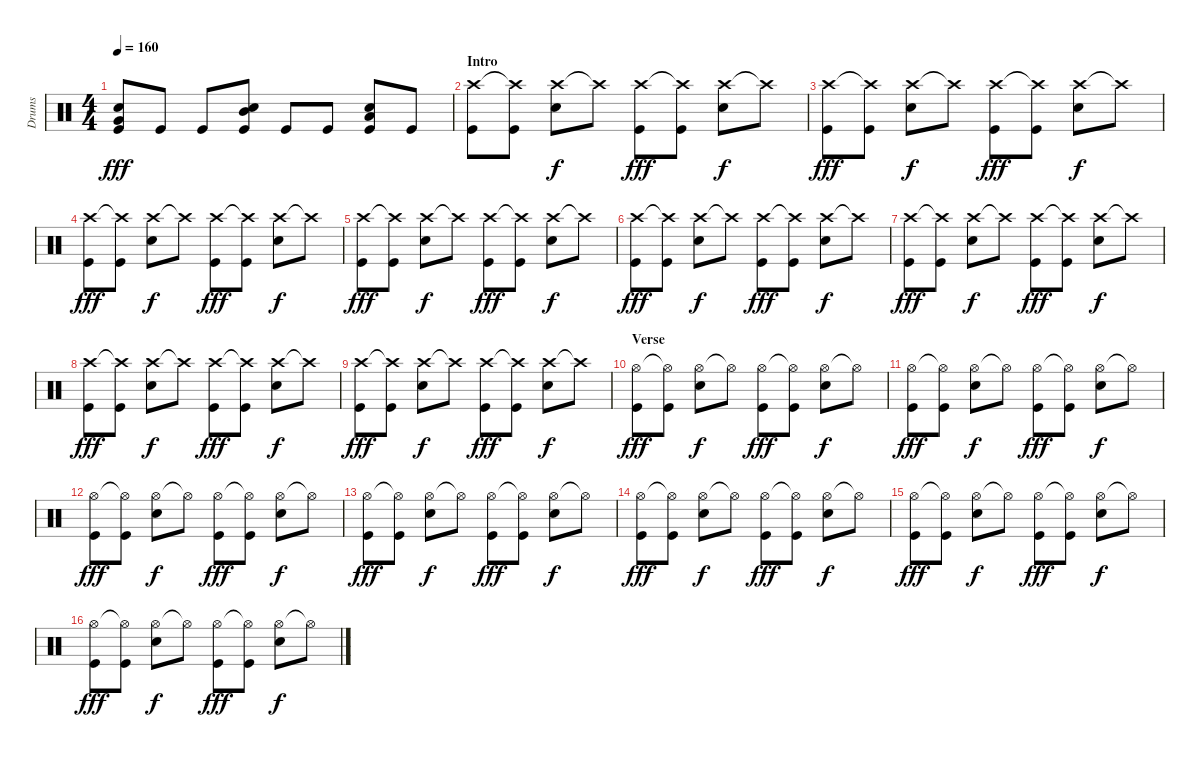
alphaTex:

\track ("Drums" "Drums") {instrument percussion}
\staff {score}
\articulation defaults
\ts (4 4)
\tempo 160
\clef neutral
\ks c
("Very Low Tom (hit)" "Snare (hit) 2" "Kick (hit)").8{dy fff balance 8} "Kick (hit)".8 "Kick (hit)".8 ("Mid Tom (hit)" "Snare (hit) 2" "Kick (hit)").8 "Kick (hit)".8 "Kick (hit)".8 ("Low Tom (hit)" "Snare (hit) 2" "Kick (hit)").8 "Kick (hit)".8 |
\section ("" "Intro")
("Crash high (hit)" "Kick (hit)").8 ("Crash high (hit)"{t} "Kick (hit)").8 ("Crash high (hit)" "Snare (hit) 2").8{dy f} "Crash high (hit)"{t}.8 ("Crash high (hit)" "Kick (hit)").8{dy fff} ("Crash high (hit)"{t} "Kick (hit)").8 ("Crash high (hit)" "Snare (hit) 2").8{dy f} "Crash high (hit)"{t}.8 |
("Crash high (hit)" "Kick (hit)").8{dy fff} ("Crash high (hit)"{t} "Kick (hit)").8 ("Crash high (hit)" "Snare (hit) 2").8{dy f} "Crash high (hit)"{t}.8 ("Crash high (hit)" "Kick (hit)").8{dy fff} ("Crash high (hit)"{t} "Kick (hit)").8 ("Crash high (hit)" "Snare (hit) 2").8{dy f} "Crash high (hit)"{t}.8 |
("Crash high (hit)" "Kick (hit)").8{dy fff} ("Crash high (hit)"{t} "Kick (hit)").8 ("Crash high (hit)" "Snare (hit) 2").8{dy f} "Crash high (hit)"{t}.8 ("Crash high (hit)" "Kick (hit)").8{dy fff} ("Crash high (hit)"{t} "Kick (hit)").8 ("Crash high (hit)" "Snare (hit) 2").8{dy f} "Crash high (hit)"{t}.8 |
("Crash high (hit)" "Kick (hit)").8{dy fff} ("Crash high (hit)"{t} "Kick (hit)").8 ("Crash high (hit)" "Snare (hit) 2").8{dy f} "Crash high (hit)"{t}.8 ("Crash high (hit)" "Kick (hit)").8{dy fff} ("Crash high (hit)"{t} "Kick (hit)").8 ("Crash high (hit)" "Snare (hit) 2").8{dy f} "Crash high (hit)"{t}.8 |
("Crash high (hit)" "Kick (hit)").8{dy fff} ("Crash high (hit)"{t} "Kick (hit)").8 ("Crash high (hit)" "Snare (hit) 2").8{dy f} "Crash high (hit)"{t}.8 ("Crash high (hit)" "Kick (hit)").8{dy fff} ("Crash high (hit)"{t} "Kick (hit)").8 ("Crash high (hit)" "Snare (hit) 2").8{dy f} "Crash high (hit)"{t}.8 |
("Crash high (hit)" "Kick (hit)").8{dy fff} ("Crash high (hit)"{t} "Kick (hit)").8 ("Crash high (hit)" "Snare (hit) 2").8{dy f} "Crash high (hit)"{t}.8 ("Crash high (hit)" "Kick (hit)").8{dy fff} ("Crash high (hit)"{t} "Kick (hit)").8 ("Crash high (hit)" "Snare (hit) 2").8{dy f} "Crash high (hit)"{t}.8 |
("Crash high (hit)" "Kick (hit)").8{dy fff} ("Crash high (hit)"{t} "Kick (hit)").8 ("Crash high (hit)" "Snare (hit) 2").8{dy f} "Crash high (hit)"{t}.8 ("Crash high (hit)" "Kick (hit)").8{dy fff} ("Crash high (hit)"{t} "Kick (hit)").8 ("Crash high (hit)" "Snare (hit) 2").8{dy f} "Crash high (hit)"{t}.8 |
("Crash high (hit)" "Kick (hit)").8{dy fff} ("Crash high (hit)"{t} "Kick (hit)").8 ("Crash high (hit)" "Snare (hit) 2").8{dy f} "Crash high (hit)"{t}.8 ("Crash high (hit)" "Kick (hit)").8{dy fff} ("Crash high (hit)"{t} "Kick (hit)").8 ("Crash high (hit)" "Snare (hit) 2").8{dy f} "Crash high (hit)"{t}.8 |
\section ("" "Verse")
("Hi-Hat (open)" "Kick (hit)").8{dy fff} ("Hi-Hat (open)"{t} "Kick (hit)").8 ("Hi-Hat (open)" "Snare (hit) 2").8{dy f} "Hi-Hat (open)"{t}.8 ("Hi-Hat (open)" "Kick (hit)").8{dy fff} ("Hi-Hat (open)"{t} "Kick (hit)").8 ("Hi-Hat (open)" "Snare (hit) 2").8{dy f} "Hi-Hat (open)"{t}.8 |
("Hi-Hat (open)" "Kick (hit)").8{dy fff} ("Hi-Hat (open)"{t} "Kick (hit)").8 ("Hi-Hat (open)" "Snare (hit) 2").8{dy f} "Hi-Hat (open)"{t}.8 ("Hi-Hat (open)" "Kick (hit)").8{dy fff} ("Hi-Hat (open)"{t} "Kick (hit)").8 ("Hi-Hat (open)" "Snare (hit) 2").8{dy f} "Hi-Hat (open)"{t}.8 |
("Hi-Hat (open)" "Kick (hit)").8{dy fff} ("Hi-Hat (open)"{t} "Kick (hit)").8 ("Hi-Hat (open)" "Snare (hit) 2").8{dy f} "Hi-Hat (open)"{t}.8 ("Hi-Hat (open)" "Kick (hit)").8{dy fff} ("Hi-Hat (open)"{t} "Kick (hit)").8 ("Hi-Hat (open)" "Snare (hit) 2").8{dy f} "Hi-Hat (open)"{t}.8 |
("Hi-Hat (open)" "Kick (hit)").8{dy fff} ("Hi-Hat (open)"{t} "Kick (hit)").8 ("Hi-Hat (open)" "Snare (hit) 2").8{dy f} "Hi-Hat (open)"{t}.8 ("Hi-Hat (open)" "Kick (hit)").8{dy fff} ("Hi-Hat (open)"{t} "Kick (hit)").8 ("Hi-Hat (open)" "Snare (hit) 2").8{dy f} "Hi-Hat (open)"{t}.8 |
("Hi-Hat (open)" "Kick (hit)").8{dy fff} ("Hi-Hat (open)"{t} "Kick (hit)").8 ("Hi-Hat (open)" "Snare (hit) 2").8{dy f} "Hi-Hat (open)"{t}.8 ("Hi-Hat (open)" "Kick (hit)").8{dy fff} ("Hi-Hat (open)"{t} "Kick (hit)").8 ("Hi-Hat (open)" "Snare (hit) 2").8{dy f} "Hi-Hat (open)"{t}.8 |
("Hi-Hat (open)" "Kick (hit)").8{dy fff} ("Hi-Hat (open)"{t} "Kick (hit)").8 ("Hi-Hat (open)" "Snare (hit) 2").8{dy f} "Hi-Hat (open)"{t}.8 ("Hi-Hat (open)" "Kick (hit)").8{dy fff} ("Hi-Hat (open)"{t} "Kick (hit)").8 ("Hi-Hat (open)" "Snare (hit) 2").8{dy f} "Hi-Hat (open)"{t}.8 |
("Hi-Hat (open)" "Kick (hit)").8{dy fff} ("Hi-Hat (open)"{t} "Kick (hit)").8 ("Hi-Hat (open)" "Snare (hit) 2").8{dy f} "Hi-Hat (open)"{t}.8 ("Hi-Hat (open)" "Kick (hit)").8{dy fff} ("Hi-Hat (open)"{t} "Kick (hit)").8 ("Hi-Hat (open)" "Snare (hit) 2").8{dy f} "Hi-Hat (open)"{t}.8
